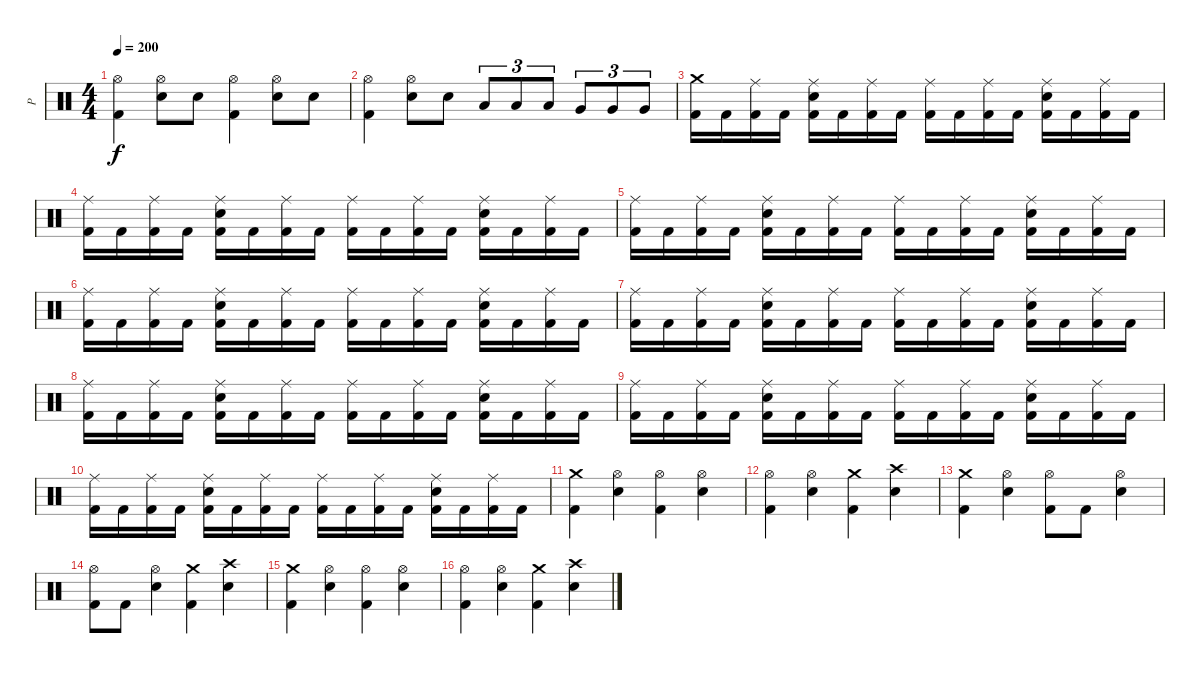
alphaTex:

\track ("P" "P") {instrument percussion}
\staff {score}
\articulation defaults
\ts (4 4)
\tempo 200
\clef neutral
\ks c
("Hi-Hat (open)" "Kick (hit) 2").4{dy f} ("Hi-Hat (open)" "Electric Snare (hit)").8 "Electric Snare (hit)".8 ("Hi-Hat (open)" "Kick (hit) 2").4 ("Hi-Hat (open)" "Electric Snare (hit)").8 "Electric Snare (hit)".8 |
("Hi-Hat (open)" "Kick (hit) 2").4 ("Hi-Hat (open)" "Electric Snare (hit)").8 "Electric Snare (hit)".8 "Low Tom (hit)".8{tu (3 2)} "Low Tom (hit)".8{tu (3 2)} "Low Tom (hit)".8{tu (3 2)} "Very Low Tom (hit)".8{tu (3 2)} "Very Low Tom (hit)".8{tu (3 2)} "Very Low Tom (hit)".8{tu (3 2)} |
("Crash medium (hit)" "Kick (hit) 2").16 "Kick (hit) 2".16 ("Ride (middle)" "Kick (hit) 2").16 "Kick (hit) 2".16 ("Ride (middle)" "Electric Snare (hit)" "Kick (hit) 2").16 "Kick (hit) 2".16 ("Ride (middle)" "Kick (hit) 2").16 "Kick (hit) 2".16 ("Ride (middle)" "Kick (hit) 2").16 "Kick (hit) 2".16 ("Ride (middle)" "Kick (hit) 2").16 "Kick (hit) 2".16 ("Ride (middle)" "Electric Snare (hit)" "Kick (hit) 2").16 "Kick (hit) 2".16 ("Ride (middle)" "Kick (hit) 2").16 "Kick (hit) 2".16 |
("Ride (middle)" "Kick (hit) 2").16 "Kick (hit) 2".16 ("Ride (middle)" "Kick (hit) 2").16 "Kick (hit) 2".16 ("Ride (middle)" "Electric Snare (hit)" "Kick (hit) 2").16 "Kick (hit) 2".16 ("Ride (middle)" "Kick (hit) 2").16 "Kick (hit) 2".16 ("Ride (middle)" "Kick (hit) 2").16 "Kick (hit) 2".16 ("Ride (middle)" "Kick (hit) 2").16 "Kick (hit) 2".16 ("Ride (middle)" "Electric Snare (hit)" "Kick (hit) 2").16 "Kick (hit) 2".16 ("Ride (middle)" "Kick (hit) 2").16 "Kick (hit) 2".16 |
("Ride (middle)" "Kick (hit) 2").16 "Kick (hit) 2".16 ("Ride (middle)" "Kick (hit) 2").16 "Kick (hit) 2".16 ("Ride (middle)" "Electric Snare (hit)" "Kick (hit) 2").16 "Kick (hit) 2".16 ("Ride (middle)" "Kick (hit) 2").16 "Kick (hit) 2".16 ("Ride (middle)" "Kick (hit) 2").16 "Kick (hit) 2".16 ("Ride (middle)" "Kick (hit) 2").16 "Kick (hit) 2".16 ("Ride (middle)" "Electric Snare (hit)" "Kick (hit) 2").16 "Kick (hit) 2".16 ("Ride (middle)" "Kick (hit) 2").16 "Kick (hit) 2".16 |
("Ride (middle)" "Kick (hit) 2").16 "Kick (hit) 2".16 ("Ride (middle)" "Kick (hit) 2").16 "Kick (hit) 2".16 ("Ride (middle)" "Electric Snare (hit)" "Kick (hit) 2").16 "Kick (hit) 2".16 ("Ride (middle)" "Kick (hit) 2").16 "Kick (hit) 2".16 ("Ride (middle)" "Kick (hit) 2").16 "Kick (hit) 2".16 ("Ride (middle)" "Kick (hit) 2").16 "Kick (hit) 2".16 ("Ride (middle)" "Electric Snare (hit)" "Kick (hit) 2").16 "Kick (hit) 2".16 ("Ride (middle)" "Kick (hit) 2").16 "Kick (hit) 2".16 |
("Ride (middle)" "Kick (hit) 2").16 "Kick (hit) 2".16 ("Ride (middle)" "Kick (hit) 2").16 "Kick (hit) 2".16 ("Ride (middle)" "Electric Snare (hit)" "Kick (hit) 2").16 "Kick (hit) 2".16 ("Ride (middle)" "Kick (hit) 2").16 "Kick (hit) 2".16 ("Ride (middle)" "Kick (hit) 2").16 "Kick (hit) 2".16 ("Ride (middle)" "Kick (hit) 2").16 "Kick (hit) 2".16 ("Ride (middle)" "Electric Snare (hit)" "Kick (hit) 2").16 "Kick (hit) 2".16 ("Ride (middle)" "Kick (hit) 2").16 "Kick (hit) 2".16 |
("Ride (middle)" "Kick (hit) 2").16 "Kick (hit) 2".16 ("Ride (middle)" "Kick (hit) 2").16 "Kick (hit) 2".16 ("Ride (middle)" "Electric Snare (hit)" "Kick (hit) 2").16 "Kick (hit) 2".16 ("Ride (middle)" "Kick (hit) 2").16 "Kick (hit) 2".16 ("Ride (middle)" "Kick (hit) 2").16 "Kick (hit) 2".16 ("Ride (middle)" "Kick (hit) 2").16 "Kick (hit) 2".16 ("Ride (middle)" "Electric Snare (hit)" "Kick (hit) 2").16 "Kick (hit) 2".16 ("Ride (middle)" "Kick (hit) 2").16 "Kick (hit) 2".16 |
("Ride (middle)" "Kick (hit) 2").16 "Kick (hit) 2".16 ("Ride (middle)" "Kick (hit) 2").16 "Kick (hit) 2".16 ("Ride (middle)" "Electric Snare (hit)" "Kick (hit) 2").16 "Kick (hit) 2".16 ("Ride (middle)" "Kick (hit) 2").16 "Kick (hit) 2".16 ("Ride (middle)" "Kick (hit) 2").16 "Kick (hit) 2".16 ("Ride (middle)" "Kick (hit) 2").16 "Kick (hit) 2".16 ("Ride (middle)" "Electric Snare (hit)" "Kick (hit) 2").16 "Kick (hit) 2".16 ("Ride (middle)" "Kick (hit) 2").16 "Kick (hit) 2".16 |
("Ride (middle)" "Kick (hit) 2").16 "Kick (hit) 2".16 ("Ride (middle)" "Kick (hit) 2").16 "Kick (hit) 2".16 ("Ride (middle)" "Electric Snare (hit)" "Kick (hit) 2").16 "Kick (hit) 2".16 ("Ride (middle)" "Kick (hit) 2").16 "Kick (hit) 2".16 ("Ride (middle)" "Kick (hit) 2").16 "Kick (hit) 2".16 ("Ride (middle)" "Kick (hit) 2").16 "Kick (hit) 2".16 ("Ride (middle)" "Electric Snare (hit)" "Kick (hit) 2").16 "Kick (hit) 2".16 ("Ride (middle)" "Kick (hit) 2").16 "Kick (hit) 2".16 |
("Crash medium (hit)" "Kick (hit) 2").4 ("Hi-Hat (open)" "Electric Snare (hit)").4 ("Hi-Hat (open)" "Kick (hit) 2").4 ("Hi-Hat (open)" "Electric Snare (hit)").4 |
("Hi-Hat (open)" "Kick (hit) 2").4 ("Hi-Hat (open)" "Electric Snare (hit)").4 ("Crash medium (hit)" "Kick (hit) 2").4 ("Crash high (hit)" "Electric Snare (hit)").4 |
("Crash medium (hit)" "Kick (hit) 2").4 ("Hi-Hat (open)" "Electric Snare (hit)").4 ("Hi-Hat (open)" "Kick (hit) 2").8 "Kick (hit) 2".8 ("Hi-Hat (open)" "Electric Snare (hit)").4 |
("Hi-Hat (open)" "Kick (hit) 2").8 "Kick (hit) 2".8 ("Hi-Hat (open)" "Electric Snare (hit)").4 ("Crash medium (hit)" "Kick (hit) 2").4 ("Crash high (hit)" "Electric Snare (hit)").4 |
("Crash medium (hit)" "Kick (hit) 2").4 ("Hi-Hat (open)" "Electric Snare (hit)").4 ("Hi-Hat (open)" "Kick (hit) 2").4 ("Hi-Hat (open)" "Electric Snare (hit)").4 |
("Hi-Hat (open)" "Kick (hit) 2").4 ("Hi-Hat (open)" "Electric Snare (hit)").4 ("Crash medium (hit)" "Kick (hit) 2").4 ("Crash high (hit)" "Electric Snare (hit)").4
